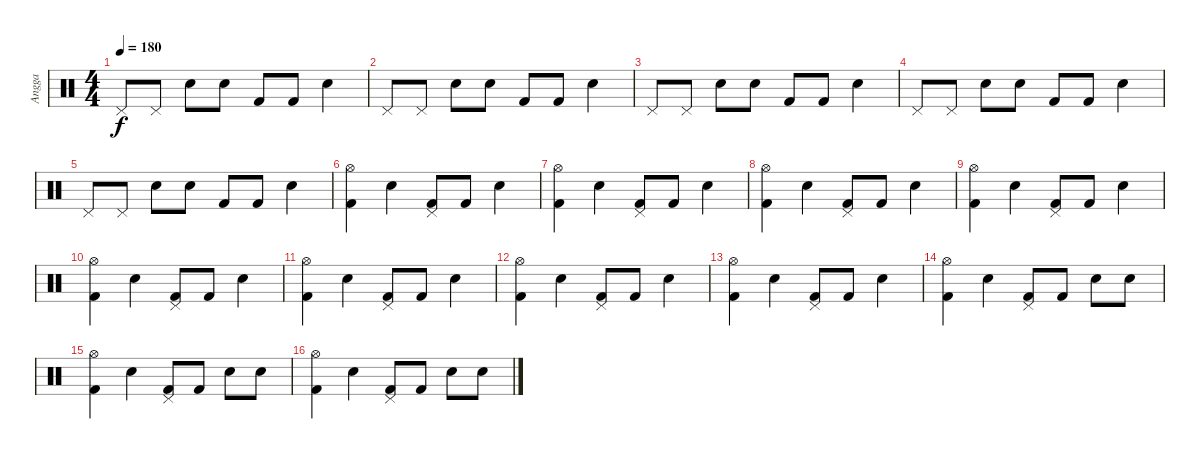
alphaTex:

\track ("Angga" "Angga") {instrument percussion}
\staff {score}
\articulation defaults
\ts (4 4)
\tempo 180
\clef neutral
\ks c "Pedal Hi-Hat (hit)".8{dy f} "Pedal Hi-Hat (hit)".8 "Snare (hit) 2".8 "Snare (hit) 2".8 "Kick (hit) 2".8 "Kick (hit) 2".8 "Snare (hit) 2".4
|
"Pedal Hi-Hat (hit)".8 "Pedal Hi-Hat (hit)".8 "Snare (hit) 2".8 "Snare (hit) 2".8 "Kick (hit) 2".8 "Kick (hit) 2".8 "Snare (hit) 2".4 |
"Pedal Hi-Hat (hit)".8 "Pedal Hi-Hat (hit)".8 "Snare (hit) 2".8 "Snare (hit) 2".8 "Kick (hit) 2".8 "Kick (hit) 2".8 "Snare (hit) 2".4 |
"Pedal Hi-Hat (hit)".8 "Pedal Hi-Hat (hit)".8 "Snare (hit) 2".8 "Snare (hit) 2".8 "Kick (hit) 2".8 "Kick (hit) 2".8 "Snare (hit) 2".4 |
"Pedal Hi-Hat (hit)".8 "Pedal Hi-Hat (hit)".8 "Snare (hit) 2".8 "Snare (hit) 2".8 "Kick (hit) 2".8 "Kick (hit) 2".8 "Snare (hit) 2".4 |
("Kick (hit) 2" "Hi-Hat (open)").4 "Snare (hit) 2".4 ("Kick (hit) 2" "Pedal Hi-Hat (hit)").8 "Kick (hit) 2".8 "Snare (hit) 2".4 |
("Kick (hit) 2" "Hi-Hat (open)").4 "Snare (hit) 2".4 ("Kick (hit) 2" "Pedal Hi-Hat (hit)").8 "Kick (hit) 2".8 "Snare (hit) 2".4 |
("Kick (hit) 2" "Hi-Hat (open)").4 "Snare (hit) 2".4 ("Kick (hit) 2" "Pedal Hi-Hat (hit)").8 "Kick (hit) 2".8 "Snare (hit) 2".4 |
("Kick (hit) 2" "Hi-Hat (open)").4 "Snare (hit) 2".4 ("Kick (hit) 2" "Pedal Hi-Hat (hit)").8 "Kick (hit) 2".8 "Snare (hit) 2".4 |
("Kick (hit) 2" "Hi-Hat (open)").4 "Snare (hit) 2".4 ("Kick (hit) 2" "Pedal Hi-Hat (hit)").8 "Kick (hit) 2".8 "Snare (hit) 2".4 |
("Kick (hit) 2" "Hi-Hat (open)").4 "Snare (hit) 2".4 ("Kick (hit) 2" "Pedal Hi-Hat (hit)").8 "Kick (hit) 2".8 "Snare (hit) 2".4 |
("Kick (hit) 2" "Hi-Hat (open)").4 "Snare (hit) 2".4 ("Kick (hit) 2" "Pedal Hi-Hat (hit)").8 "Kick (hit) 2".8 "Snare (hit) 2".4 |
("Kick (hit) 2" "Hi-Hat (open)").4 "Snare (hit) 2".4 ("Kick (hit) 2" "Pedal Hi-Hat (hit)").8 "Kick (hit) 2".8 "Snare (hit) 2".4 |
("Kick (hit) 2" "Hi-Hat (open)").4 "Snare (hit) 2".4 ("Kick (hit) 2" "Pedal Hi-Hat (hit)").8 "Kick (hit) 2".8 "Snare (hit) 2".8 "Snare (hit) 2".8 |
("Kick (hit) 2" "Hi-Hat (open)").4 "Snare (hit) 2".4 ("Kick (hit) 2" "Pedal Hi-Hat (hit)").8 "Kick (hit) 2".8 "Snare (hit) 2".8 "Snare (hit) 2".8 |
("Kick (hit) 2" "Hi-Hat (open)").4 "Snare (hit) 2".4 ("Kick (hit) 2" "Pedal Hi-Hat (hit)").8 "Kick (hit) 2".8 "Snare (hit) 2".8 "Snare (hit) 2".8
